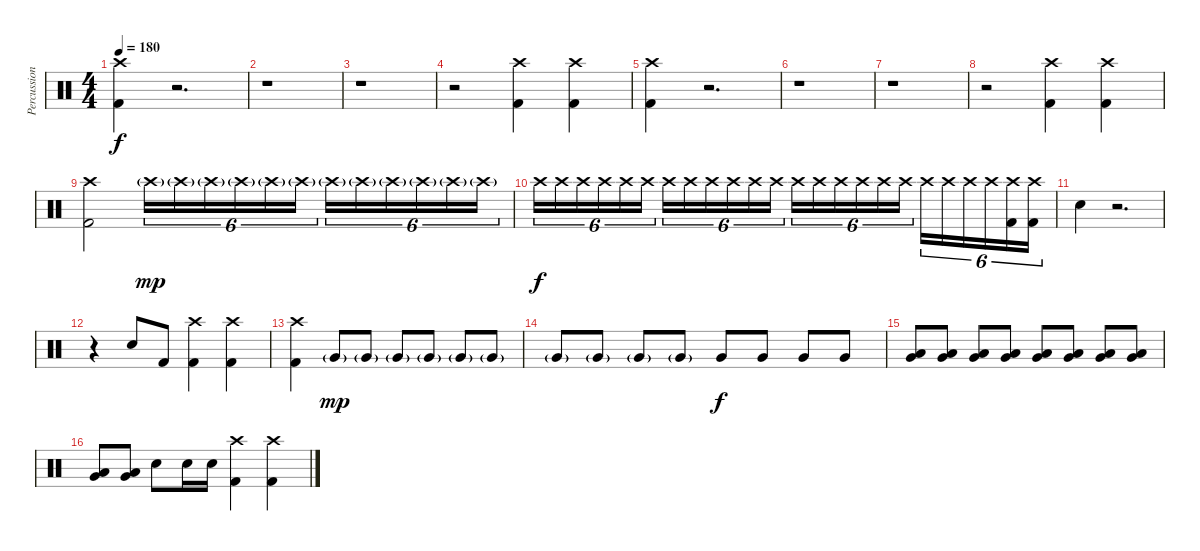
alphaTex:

\track ("Percussion" "Percussion") {instrument percussion}
\staff {score}
\articulation defaults
\ts (4 4)
\tempo 180
\clef neutral
\ks c
("Crash high (hit)" "Kick (hit) 2").4{dy f} r.2{d} |
r.1 |
r.1 |
r.2 ("Crash high (hit)" "Kick (hit) 2").4 ("Crash high (hit)" "Kick (hit) 2").4 |
("Crash high (hit)" "Kick (hit) 2").4 r.2{d} |
r.1 |
r.1 |
r.2 ("Crash high (hit)" "Kick (hit) 2").4 ("Crash high (hit)" "Kick (hit) 2").4 |
("Crash high (hit)" "Kick (hit) 2").2 "Crash high (hit)"{g}.16{tu (6 4) dy mp} "Crash high (hit)"{g}.16{tu (6 4)} "Crash high (hit)"{g}.16{tu (6 4)} "Crash high (hit)"{g}.16{tu (6 4)} "Crash high (hit)"{g}.16{tu (6 4)} "Crash high (hit)"{g}.16{tu (6 4)} "Crash high (hit)"{g}.16{tu (6 4)} "Crash high (hit)"{g}.16{tu (6 4)} "Crash high (hit)"{g}.16{tu (6 4)} "Crash high (hit)"{g}.16{tu (6 4)} "Crash high (hit)"{g}.16{tu (6 4)} "Crash high (hit)"{g}.16{tu (6 4)} |
"Crash high (hit)".16{tu (6 4) dy f} "Crash high (hit)".16{tu (6 4)} "Crash high (hit)".16{tu (6 4)} "Crash high (hit)".16{tu (6 4)} "Crash high (hit)".16{tu (6 4)} "Crash high (hit)".16{tu (6 4)} "Crash high (hit)".16{tu (6 4)} "Crash high (hit)".16{tu (6 4)} "Crash high (hit)".16{tu (6 4)} "Crash high (hit)".16{tu (6 4)} "Crash high (hit)".16{tu (6 4)} "Crash high (hit)".16{tu (6 4)} "Crash high (hit)".16{tu (6 4)} "Crash high (hit)".16{tu (6 4)} "Crash high (hit)".16{tu (6 4)} "Crash high (hit)".16{tu (6 4)} "Crash high (hit)".16{tu (6 4)} "Crash high (hit)".16{tu (6 4)} "Crash high (hit)".16{tu (6 4)} "Crash high (hit)".16{tu (6 4)} "Crash high (hit)".16{tu (6 4)} "Crash high (hit)".16{tu (6 4)} ("Crash high (hit)" "Kick (hit) 2").16{tu (6 4)} ("Crash high (hit)" "Kick (hit) 2").16{tu (6 4)} |
"Electric Snare (hit)".4 r.2{d} |
r.4 "Electric Snare (hit)".8 "Kick (hit) 2".8 ("Crash high (hit)" "Kick (hit) 2").4 ("Crash high (hit)" "Kick (hit) 2").4 |
("Crash high (hit)" "Kick (hit) 2").4 "Very Low Tom (hit)"{g}.8{dy mp} "Very Low Tom (hit)"{g}.8 "Very Low Tom (hit)"{g}.8 "Very Low Tom (hit)"{g}.8 "Very Low Tom (hit)"{g}.8 "Very Low Tom (hit)"{g}.8 |
"Very Low Tom (hit)"{g}.8 "Very Low Tom (hit)"{g}.8 "Very Low Tom (hit)"{g}.8 "Very Low Tom (hit)"{g}.8 "Very Low Tom (hit)".8{dy f} "Very Low Tom (hit)".8 "Very Low Tom (hit)".8 "Very Low Tom (hit)".8 |
("Low Tom (hit)" "Very Low Tom (hit)").8 ("Low Tom (hit)" "Very Low Tom (hit)").8 ("Low Tom (hit)" "Very Low Tom (hit)").8 ("Low Tom (hit)" "Very Low Tom (hit)").8 ("Low Tom (hit)" "Very Low Tom (hit)").8 ("Low Tom (hit)" "Very Low Tom (hit)").8 ("Low Tom (hit)" "Very Low Tom (hit)").8 ("Low Tom (hit)" "Very Low Tom (hit)").8 |
("Low Tom (hit)" "Very Low Tom (hit)").8 ("Low Tom (hit)" "Very Low Tom (hit)").8 "Electric Snare (hit)".8 "Electric Snare (hit)".16 "Electric Snare (hit)".16 ("Crash high (hit)" "Kick (hit) 2").4 ("Crash high (hit)" "Kick (hit) 2").4
